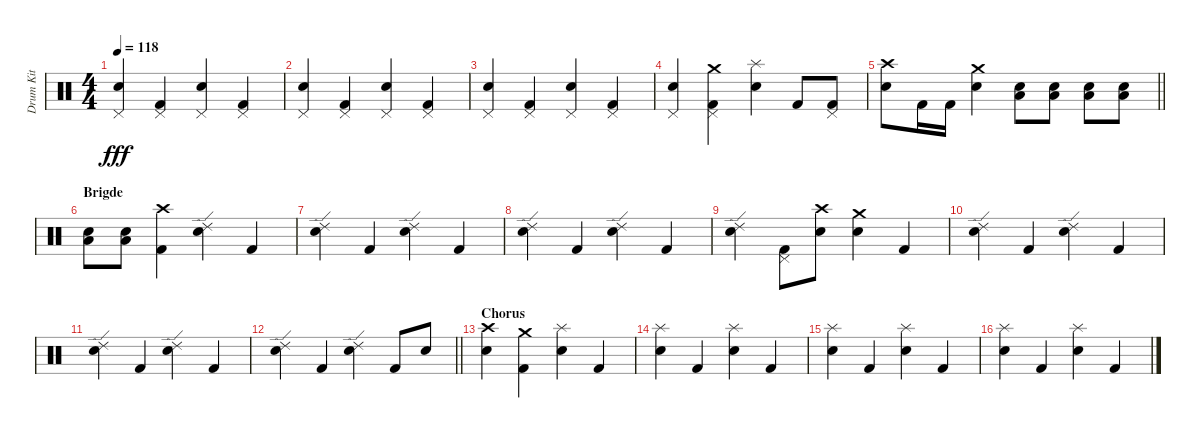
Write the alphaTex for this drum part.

\track ("Drum Kit" "Drum Kit") {instrument percussion}
\staff {score}
\articulation defaults
\ts (4 4)
\tempo 118
\clef neutral
\ks c
("Electric Snare (hit)" "Pedal Hi-Hat (hit)").4{dy fff} ("Kick (hit) 2" "Pedal Hi-Hat (hit)").4 ("Electric Snare (hit)" "Pedal Hi-Hat (hit)").4 ("Pedal Hi-Hat (hit)" "Kick (hit) 2").4 |
("Pedal Hi-Hat (hit)" "Electric Snare (hit)").4 ("Kick (hit) 2" "Pedal Hi-Hat (hit)").4 ("Pedal Hi-Hat (hit)" "Electric Snare (hit)").4 ("Pedal Hi-Hat (hit)" "Kick (hit) 2").4 |
("Pedal Hi-Hat (hit)" "Electric Snare (hit)").4 ("Pedal Hi-Hat (hit)" "Kick (hit) 2").4 ("Electric Snare (hit)" "Pedal Hi-Hat (hit)").4 ("Kick (hit) 2" "Pedal Hi-Hat (hit)").4 |
("Electric Snare (hit)" "Pedal Hi-Hat (hit)").4 ("Pedal Hi-Hat (hit)" "Kick (hit) 2" "Crash medium (hit)").4 ("Electric Snare (hit)" "Splash (hit)").4 "Kick (hit) 2".8 ("Pedal Hi-Hat (hit)" "Kick (hit) 2").8 |
\barLineRight lightlight
("Electric Snare (hit)" "Crash high (hit)").8 "Kick (hit) 2".16 "Kick (hit) 2".16 ("Electric Snare (hit)" "Crash medium (hit)").4 ("Low Floor Tom (hit)" "Snare (hit) 2").8 ("Low Floor Tom (hit)" "Snare (hit) 2").8 ("Low Floor Tom (hit)" "Snare (hit) 2").8 ("Low Floor Tom (hit)" "Snare (hit) 2").8 |
\section ("" "Brigde")
("Low Floor Tom (hit)" "Snare (hit) 2").8 ("Low Floor Tom (hit)" "Snare (hit) 2").8 ("Crash high (hit)" "Kick (hit) 2").4 ("Electric Snare (hit)" "Ride (edge) 2").4 "Kick (hit) 2".4 |
("Electric Snare (hit)" "Ride (edge) 2").4 "Kick (hit) 2".4 ("Electric Snare (hit)" "Ride (edge) 2").4 "Kick (hit) 2".4 |
("Electric Snare (hit)" "Ride (edge) 2").4 "Kick (hit) 2".4 ("Electric Snare (hit)" "Ride (edge) 2").4 "Kick (hit) 2".4 |
("Electric Snare (hit)" "Ride (edge) 2").4 ("Kick (hit) 2" "Pedal Hi-Hat (hit)").8 ("Electric Snare (hit)" "Crash high (hit)").8 ("Electric Snare (hit)" "Crash medium (hit)").4 "Kick (hit) 2".4 |
("Electric Snare (hit)" "Ride (edge) 2").4 "Kick (hit) 2".4 ("Ride (edge) 2" "Electric Snare (hit)").4 "Kick (hit) 2".4 |
("Electric Snare (hit)" "Ride (edge) 2").4 "Kick (hit) 2".4 ("Ride (edge) 2" "Electric Snare (hit)").4 "Kick (hit) 2".4 |
\barLineRight lightlight
("Electric Snare (hit)" "Ride (edge) 2").4 "Kick (hit) 2".4 ("Electric Snare (hit)" "Ride (edge) 2").4 "Kick (hit) 2".8 "Electric Snare (hit)".8 |
\section ("" "Chorus")
("Crash high (hit)" "Electric Snare (hit)").4 ("Kick (hit) 2" "Crash medium (hit)").4 ("Splash (hit)" "Electric Snare (hit)").4 "Kick (hit) 2".4 |
("Splash (hit)" "Electric Snare (hit)").4 "Kick (hit) 2".4 ("Splash (hit)" "Electric Snare (hit)").4 "Kick (hit) 2".4 |
("Splash (hit)" "Electric Snare (hit)").4 "Kick (hit) 2".4 ("Splash (hit)" "Electric Snare (hit)").4 "Kick (hit) 2".4 |
("Splash (hit)" "Electric Snare (hit)").4 "Kick (hit) 2".4 ("Splash (hit)" "Electric Snare (hit)").4 "Kick (hit) 2".4
